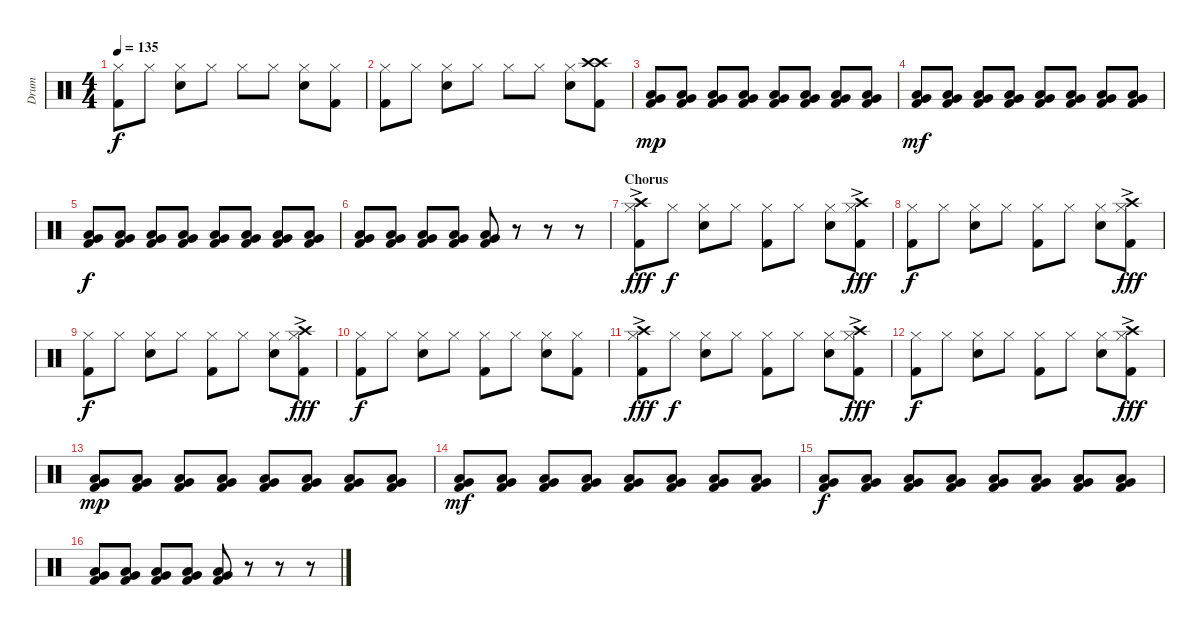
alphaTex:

\track ("Drum" "Drum") {instrument percussion}
\staff {score}
\articulation defaults
\ts (4 4)
\tempo 135
\clef neutral
\ks c
("Hi-Hat (closed)" "Kick (hit) 2").8{dy f} "Hi-Hat (closed)".8 ("Snare (hit) 2" "Hi-Hat (closed)").8 "Hi-Hat (closed)".8 "Hi-Hat (closed)".8 "Hi-Hat (closed)".8 ("Snare (hit) 2" "Hi-Hat (closed)").8 ("Hi-Hat (closed)" "Kick (hit) 2").8 |
("Hi-Hat (closed)" "Kick (hit) 2").8 "Hi-Hat (closed)".8 ("Snare (hit) 2" "Hi-Hat (closed)").8 "Hi-Hat (closed)".8 "Hi-Hat (closed)".8 "Hi-Hat (closed)".8 ("Snare (hit) 2" "Hi-Hat (closed)").8 ("Crash high (hit)" "Crash high (hit)" "Kick (hit) 2").8 |
("Very Low Tom (hit)" "Low Floor Tom (hit)" "Kick (hit) 2").8{dy mp} ("Very Low Tom (hit)" "Low Floor Tom (hit)" "Kick (hit) 2").8 ("Very Low Tom (hit)" "Low Floor Tom (hit)" "Kick (hit) 2").8 ("Very Low Tom (hit)" "Low Floor Tom (hit)" "Kick (hit) 2").8 ("Very Low Tom (hit)" "Low Floor Tom (hit)" "Kick (hit) 2").8 ("Very Low Tom (hit)" "Low Floor Tom (hit)" "Kick (hit) 2").8 ("Very Low Tom (hit)" "Low Floor Tom (hit)" "Kick (hit) 2").8 ("Very Low Tom (hit)" "Low Floor Tom (hit)" "Kick (hit) 2").8 |
("Very Low Tom (hit)" "Low Floor Tom (hit)" "Kick (hit) 2").8{dy mf} ("Very Low Tom (hit)" "Low Floor Tom (hit)" "Kick (hit) 2").8 ("Very Low Tom (hit)" "Low Floor Tom (hit)" "Kick (hit) 2").8 ("Very Low Tom (hit)" "Low Floor Tom (hit)" "Kick (hit) 2").8 ("Very Low Tom (hit)" "Low Floor Tom (hit)" "Kick (hit) 2").8 ("Very Low Tom (hit)" "Low Floor Tom (hit)" "Kick (hit) 2").8 ("Very Low Tom (hit)" "Low Floor Tom (hit)" "Kick (hit) 2").8 ("Very Low Tom (hit)" "Low Floor Tom (hit)" "Kick (hit) 2").8 |
("Very Low Tom (hit)" "Low Floor Tom (hit)" "Kick (hit) 2").8{dy f} ("Very Low Tom (hit)" "Low Floor Tom (hit)" "Kick (hit) 2").8 ("Very Low Tom (hit)" "Low Floor Tom (hit)" "Kick (hit) 2").8 ("Very Low Tom (hit)" "Low Floor Tom (hit)" "Kick (hit) 2").8 ("Very Low Tom (hit)" "Low Floor Tom (hit)" "Kick (hit) 2").8 ("Very Low Tom (hit)" "Low Floor Tom (hit)" "Kick (hit) 2").8 ("Very Low Tom (hit)" "Low Floor Tom (hit)" "Kick (hit) 2").8 ("Very Low Tom (hit)" "Low Floor Tom (hit)" "Kick (hit) 2").8 |
("Very Low Tom (hit)" "Low Floor Tom (hit)" "Kick (hit) 2").8 ("Very Low Tom (hit)" "Low Floor Tom (hit)" "Kick (hit) 2").8 ("Very Low Tom (hit)" "Low Floor Tom (hit)" "Kick (hit) 2").8 ("Very Low Tom (hit)" "Low Floor Tom (hit)" "Kick (hit) 2").8 ("Very Low Tom (hit)" "Low Floor Tom (hit)" "Kick (hit) 2").8 r.8 r.8 r.8 |
\section ("" "Chorus")
("Crash high (hit)"{ac} "Hi-Hat (closed)" "Kick (hit) 2").8{dy fff} "Hi-Hat (closed)".8{dy f} ("Snare (hit) 2" "Hi-Hat (closed)").8 "Hi-Hat (closed)".8 ("Hi-Hat (closed)" "Kick (hit) 2").8 "Hi-Hat (closed)".8 ("Snare (hit) 2" "Hi-Hat (closed)").8 ("Crash high (hit)"{ac} "Hi-Hat (closed)" "Kick (hit) 2").8{dy fff} |
("Hi-Hat (closed)" "Kick (hit) 2").8{dy f} "Hi-Hat (closed)".8 ("Snare (hit) 2" "Hi-Hat (closed)").8 "Hi-Hat (closed)".8 ("Hi-Hat (closed)" "Kick (hit) 2").8 "Hi-Hat (closed)".8 ("Snare (hit) 2" "Hi-Hat (closed)").8 ("Crash high (hit)"{ac} "Hi-Hat (closed)" "Kick (hit) 2").8{dy fff} |
("Hi-Hat (closed)" "Kick (hit) 2").8{dy f} "Hi-Hat (closed)".8 ("Snare (hit) 2" "Hi-Hat (closed)").8 "Hi-Hat (closed)".8 ("Hi-Hat (closed)" "Kick (hit) 2").8 "Hi-Hat (closed)".8 ("Snare (hit) 2" "Hi-Hat (closed)").8 ("Crash high (hit)"{ac} "Hi-Hat (closed)" "Kick (hit) 2").8{dy fff} |
("Hi-Hat (closed)" "Kick (hit) 2").8{dy f} "Hi-Hat (closed)".8 ("Snare (hit) 2" "Hi-Hat (closed)").8 "Hi-Hat (closed)".8 ("Hi-Hat (closed)" "Kick (hit) 2").8 "Hi-Hat (closed)".8 ("Snare (hit) 2" "Hi-Hat (closed)").8 ("Hi-Hat (closed)" "Kick (hit) 2").8 |
("Crash high (hit)"{ac} "Hi-Hat (closed)" "Kick (hit) 2").8{dy fff} "Hi-Hat (closed)".8{dy f} ("Snare (hit) 2" "Hi-Hat (closed)").8 "Hi-Hat (closed)".8 ("Hi-Hat (closed)" "Kick (hit) 2").8 "Hi-Hat (closed)".8 ("Snare (hit) 2" "Hi-Hat (closed)").8 ("Crash high (hit)"{ac} "Hi-Hat (closed)" "Kick (hit) 2").8{dy fff} |
("Hi-Hat (closed)" "Kick (hit) 2").8{dy f} "Hi-Hat (closed)".8 ("Snare (hit) 2" "Hi-Hat (closed)").8 "Hi-Hat (closed)".8 ("Hi-Hat (closed)" "Kick (hit) 2").8 "Hi-Hat (closed)".8 ("Snare (hit) 2" "Hi-Hat (closed)").8 ("Crash high (hit)"{ac} "Hi-Hat (closed)" "Kick (hit) 2").8{dy fff} |
("Very Low Tom (hit)" "Low Floor Tom (hit)" "Kick (hit) 2").8{dy mp} ("Very Low Tom (hit)" "Low Floor Tom (hit)" "Kick (hit) 2").8 ("Very Low Tom (hit)" "Low Floor Tom (hit)" "Kick (hit) 2").8 ("Very Low Tom (hit)" "Low Floor Tom (hit)" "Kick (hit) 2").8 ("Very Low Tom (hit)" "Low Floor Tom (hit)" "Kick (hit) 2").8 ("Very Low Tom (hit)" "Low Floor Tom (hit)" "Kick (hit) 2").8 ("Very Low Tom (hit)" "Low Floor Tom (hit)" "Kick (hit) 2").8 ("Very Low Tom (hit)" "Low Floor Tom (hit)" "Kick (hit) 2").8 |
("Very Low Tom (hit)" "Low Floor Tom (hit)" "Kick (hit) 2").8{dy mf} ("Very Low Tom (hit)" "Low Floor Tom (hit)" "Kick (hit) 2").8 ("Very Low Tom (hit)" "Low Floor Tom (hit)" "Kick (hit) 2").8 ("Very Low Tom (hit)" "Low Floor Tom (hit)" "Kick (hit) 2").8 ("Very Low Tom (hit)" "Low Floor Tom (hit)" "Kick (hit) 2").8 ("Very Low Tom (hit)" "Low Floor Tom (hit)" "Kick (hit) 2").8 ("Very Low Tom (hit)" "Low Floor Tom (hit)" "Kick (hit) 2").8 ("Very Low Tom (hit)" "Low Floor Tom (hit)" "Kick (hit) 2").8 |
("Very Low Tom (hit)" "Low Floor Tom (hit)" "Kick (hit) 2").8{dy f} ("Very Low Tom (hit)" "Low Floor Tom (hit)" "Kick (hit) 2").8 ("Very Low Tom (hit)" "Low Floor Tom (hit)" "Kick (hit) 2").8 ("Very Low Tom (hit)" "Low Floor Tom (hit)" "Kick (hit) 2").8 ("Very Low Tom (hit)" "Low Floor Tom (hit)" "Kick (hit) 2").8 ("Very Low Tom (hit)" "Low Floor Tom (hit)" "Kick (hit) 2").8 ("Very Low Tom (hit)" "Low Floor Tom (hit)" "Kick (hit) 2").8 ("Very Low Tom (hit)" "Low Floor Tom (hit)" "Kick (hit) 2").8 |
("Very Low Tom (hit)" "Low Floor Tom (hit)" "Kick (hit) 2").8 ("Very Low Tom (hit)" "Low Floor Tom (hit)" "Kick (hit) 2").8 ("Very Low Tom (hit)" "Low Floor Tom (hit)" "Kick (hit) 2").8 ("Very Low Tom (hit)" "Low Floor Tom (hit)" "Kick (hit) 2").8 ("Very Low Tom (hit)" "Low Floor Tom (hit)" "Kick (hit) 2").8 r.8 r.8 r.8
